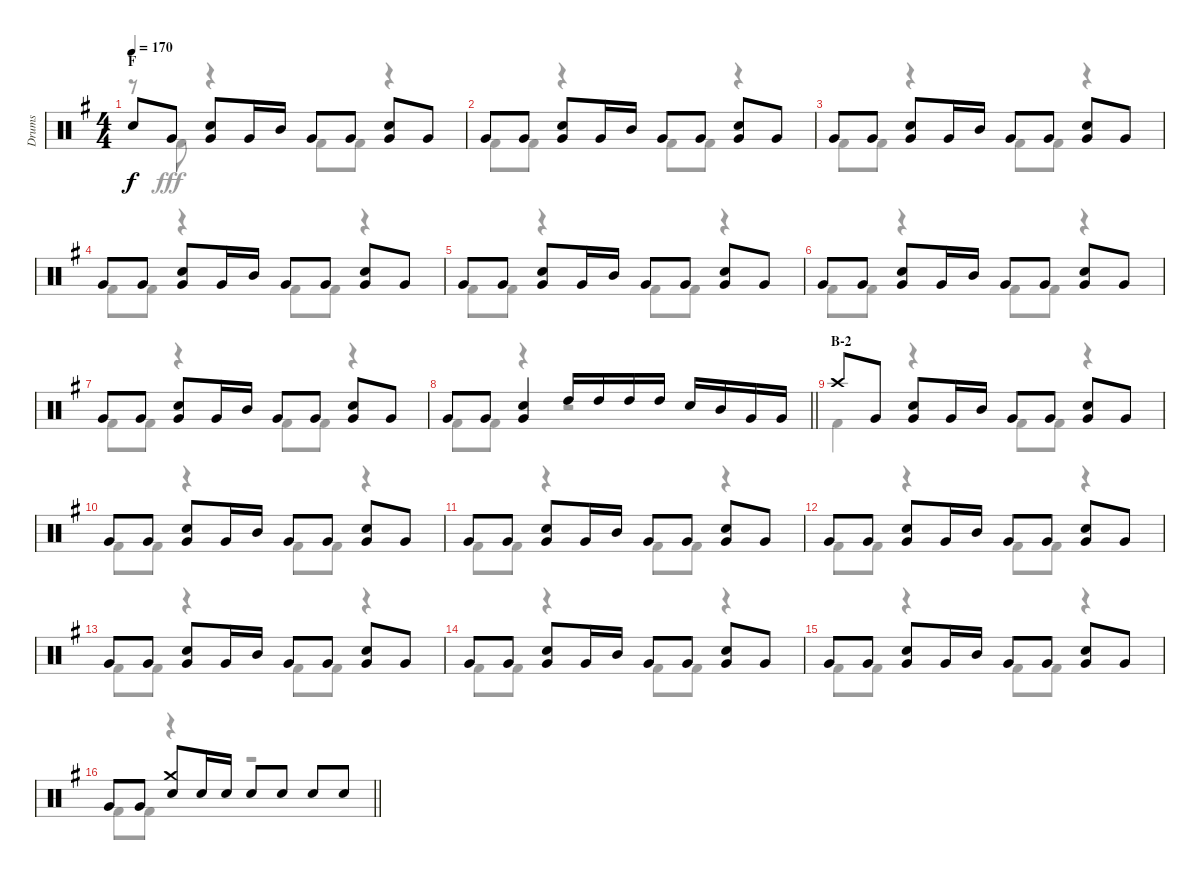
\track ("Drums" "Drums") {instrument percussion}
\staff {score}
\articulation defaults
\voice
\ts (4 4)
\section ("" "F")
\tempo 170
\clef neutral
\ks g "Snare (hit)"{t}.8{dy f} "Very Low Tom (hit)".8
("Snare (hit) 2" "Very Low Tom (hit)").8 "Very Low Tom (hit)".16 "Mid Tom (hit)".16 "Very Low Tom (hit)".8 "Very Low Tom (hit)".8 ("Snare (hit) 2" "Very Low Tom (hit)").8 "Very Low Tom (hit)".8 |
"Very Low Tom (hit)".8 "Very Low Tom (hit)".8 ("Snare (hit) 2" "Very Low Tom (hit)").8 "Very Low Tom (hit)".16 "Mid Tom (hit)".16 "Very Low Tom (hit)".8 "Very Low Tom (hit)".8 ("Snare (hit) 2" "Very Low Tom (hit)").8 "Very Low Tom (hit)".8 |
"Very Low Tom (hit)".8 "Very Low Tom (hit)".8 ("Snare (hit) 2" "Very Low Tom (hit)").8 "Very Low Tom (hit)".16 "Mid Tom (hit)".16 "Very Low Tom (hit)".8 "Very Low Tom (hit)".8 ("Snare (hit) 2" "Very Low Tom (hit)").8 "Very Low Tom (hit)".8 |
"Very Low Tom (hit)".8 "Very Low Tom (hit)".8 ("Snare (hit) 2" "Very Low Tom (hit)").8 "Very Low Tom (hit)".16 "Mid Tom (hit)".16 "Very Low Tom (hit)".8 "Very Low Tom (hit)".8 ("Snare (hit) 2" "Very Low Tom (hit)").8 "Very Low Tom (hit)".8 |
"Very Low Tom (hit)".8 "Very Low Tom (hit)".8 ("Snare (hit) 2" "Very Low Tom (hit)").8 "Very Low Tom (hit)".16 "Mid Tom (hit)".16 "Very Low Tom (hit)".8 "Very Low Tom (hit)".8 ("Snare (hit) 2" "Very Low Tom (hit)").8 "Very Low Tom (hit)".8 |
"Very Low Tom (hit)".8 "Very Low Tom (hit)".8 ("Snare (hit) 2" "Very Low Tom (hit)").8 "Very Low Tom (hit)".16 "Mid Tom (hit)".16 "Very Low Tom (hit)".8 "Very Low Tom (hit)".8 ("Snare (hit) 2" "Very Low Tom (hit)").8 "Very Low Tom (hit)".8 |
"Very Low Tom (hit)".8 "Very Low Tom (hit)".8 ("Snare (hit) 2" "Very Low Tom (hit)").8 "Very Low Tom (hit)".16 "Mid Tom (hit)".16 "Very Low Tom (hit)".8 "Very Low Tom (hit)".8 ("Snare (hit) 2" "Very Low Tom (hit)").8 "Very Low Tom (hit)".8 |
\barLineRight lightlight "Very Low Tom (hit)".8 "Very Low Tom (hit)".8
("Snare (hit) 2" "Very Low Tom (hit)").4 "High Tom (hit)".16 "High Tom (hit)".16 "High Tom (hit)".16 "High Tom (hit)".16 "Snare (hit) 2".16 "Mid Tom (hit)".16 "Very Low Tom (hit)".16 "Very Low Tom (hit)".16 |
\section ("" "B-2")
"Crash high (hit)".8 "Very Low Tom (hit)".8 ("Snare (hit) 2" "Very Low Tom (hit)").8 "Very Low Tom (hit)".16 "Mid Tom (hit)".16 "Very Low Tom (hit)".8 "Very Low Tom (hit)".8 ("Snare (hit) 2" "Very Low Tom (hit)").8 "Very Low Tom (hit)".8 |
"Very Low Tom (hit)".8 "Very Low Tom (hit)".8 ("Snare (hit) 2" "Very Low Tom (hit)").8 "Very Low Tom (hit)".16 "Mid Tom (hit)".16 "Very Low Tom (hit)".8 "Very Low Tom (hit)".8 ("Snare (hit) 2" "Very Low Tom (hit)").8 "Very Low Tom (hit)".8 |
"Very Low Tom (hit)".8 "Very Low Tom (hit)".8 ("Snare (hit) 2" "Very Low Tom (hit)").8 "Very Low Tom (hit)".16 "Mid Tom (hit)".16 "Very Low Tom (hit)".8 "Very Low Tom (hit)".8 ("Snare (hit) 2" "Very Low Tom (hit)").8 "Very Low Tom (hit)".8 |
"Very Low Tom (hit)".8 "Very Low Tom (hit)".8 ("Snare (hit) 2" "Very Low Tom (hit)").8 "Very Low Tom (hit)".16 "Mid Tom (hit)".16 "Very Low Tom (hit)".8 "Very Low Tom (hit)".8 ("Snare (hit) 2" "Very Low Tom (hit)").8 "Very Low Tom (hit)".8 |
"Very Low Tom (hit)".8 "Very Low Tom (hit)".8 ("Snare (hit) 2" "Very Low Tom (hit)").8 "Very Low Tom (hit)".16 "Mid Tom (hit)".16 "Very Low Tom (hit)".8 "Very Low Tom (hit)".8 ("Snare (hit) 2" "Very Low Tom (hit)").8 "Very Low Tom (hit)".8 |
"Very Low Tom (hit)".8 "Very Low Tom (hit)".8 ("Snare (hit) 2" "Very Low Tom (hit)").8 "Very Low Tom (hit)".16 "Mid Tom (hit)".16 "Very Low Tom (hit)".8 "Very Low Tom (hit)".8 ("Snare (hit) 2" "Very Low Tom (hit)").8 "Very Low Tom (hit)".8 |
"Very Low Tom (hit)".8 "Very Low Tom (hit)".8 ("Snare (hit) 2" "Very Low Tom (hit)").8 "Very Low Tom (hit)".16 "Mid Tom (hit)".16 "Very Low Tom (hit)".8 "Very Low Tom (hit)".8 ("Snare (hit) 2" "Very Low Tom (hit)").8 "Very Low Tom (hit)".8 |
\barLineRight lightlight "Very Low Tom (hit)".8 "Very Low Tom (hit)".8
("Crash medium (hit)" "Snare (hit) 2").8 "Snare (hit) 2".16 "Snare (hit) 2".16 "Snare (hit) 2".8 "Snare (hit) 2".8 "Snare (hit) 2".8 "Snare (hit) 2".8
\voice
\clef neutral
\ottava regular
\simile none
\ks g
r.8{dy fff} "Kick (hit) 2".8 r.4 "Kick (hit) 2".8 "Kick (hit) 2".8 r.4 |
"Kick (hit) 2".8 "Kick (hit) 2".8 r.4 "Kick (hit) 2".8 "Kick (hit) 2".8 r.4 |
"Kick (hit) 2".8 "Kick (hit) 2".8 r.4 "Kick (hit) 2".8 "Kick (hit) 2".8 r.4 |
"Kick (hit) 2".8 "Kick (hit) 2".8 r.4 "Kick (hit) 2".8 "Kick (hit) 2".8 r.4 |
"Kick (hit) 2".8 "Kick (hit) 2".8 r.4 "Kick (hit) 2".8 "Kick (hit) 2".8 r.4 |
"Kick (hit) 2".8 "Kick (hit) 2".8 r.4 "Kick (hit) 2".8 "Kick (hit) 2".8 r.4 |
"Kick (hit) 2".8 "Kick (hit) 2".8 r.4 "Kick (hit) 2".8 "Kick (hit) 2".8 r.4 |
\barLineRight lightlight "Kick (hit) 2".8 "Kick (hit) 2".8
r.4 r.2 |
"Kick (hit) 2".4 r.4 "Kick (hit) 2".8 "Kick (hit) 2".8 r.4 |
"Kick (hit) 2".8 "Kick (hit) 2".8 r.4 "Kick (hit) 2".8 "Kick (hit) 2".8 r.4 |
"Kick (hit) 2".8 "Kick (hit) 2".8 r.4 "Kick (hit) 2".8 "Kick (hit) 2".8 r.4 |
"Kick (hit) 2".8 "Kick (hit) 2".8 r.4 "Kick (hit) 2".8 "Kick (hit) 2".8 r.4 |
"Kick (hit) 2".8 "Kick (hit) 2".8 r.4 "Kick (hit) 2".8 "Kick (hit) 2".8 r.4 |
"Kick (hit) 2".8 "Kick (hit) 2".8 r.4 "Kick (hit) 2".8 "Kick (hit) 2".8 r.4 |
"Kick (hit) 2".8 "Kick (hit) 2".8 r.4 "Kick (hit) 2".8 "Kick (hit) 2".8 r.4 |
\barLineRight lightlight "Kick (hit) 2".8 "Kick (hit) 2".8
r.4 r.2
